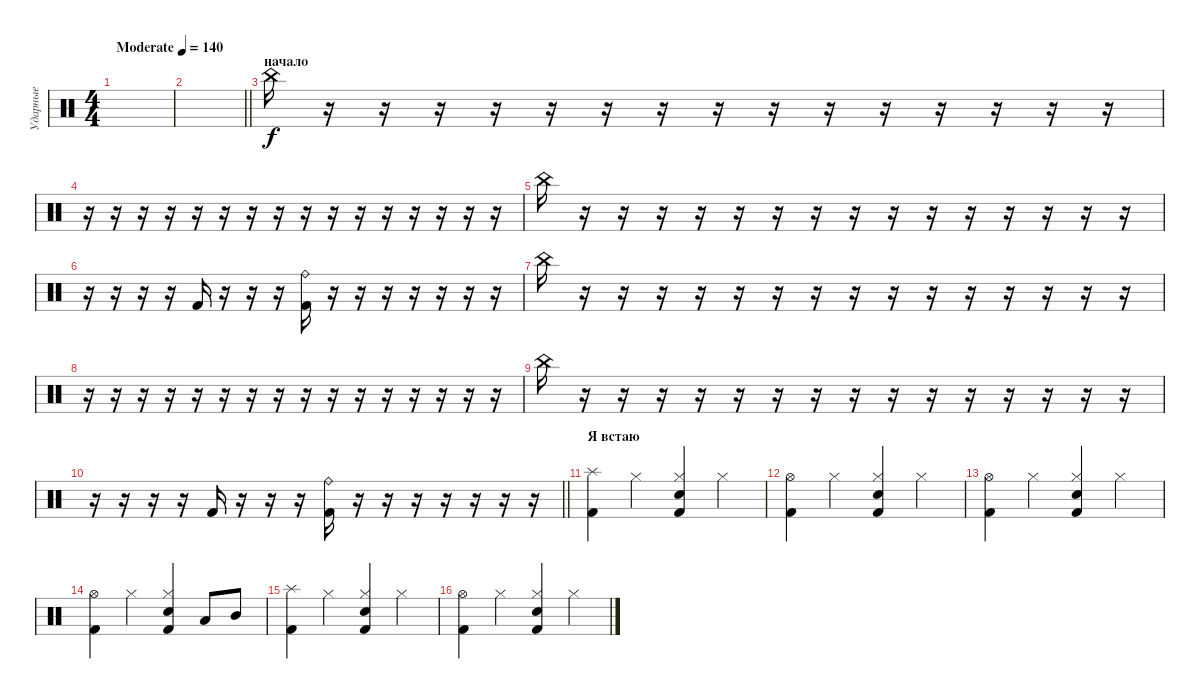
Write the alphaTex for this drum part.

\track ("Ударные" "Ударные") {instrument percussion}
\staff {score}
\articulation defaults
\ts (4 4)
\tempo (140 "Moderate")
\clef neutral
\ks c
|
\barLineRight lightlight
|
\section ("" "начало")
"China (hit)".16 r.16 r.16 r.16 r.16 r.16 r.16 r.16 r.16 r.16 r.16 r.16 r.16 r.16 r.16 r.16 |
r.16 r.16 r.16 r.16 r.16 r.16 r.16 r.16 r.16 r.16 r.16 r.16 r.16 r.16 r.16 r.16 |
"China (hit)".16 r.16 r.16 r.16 r.16 r.16 r.16 r.16 r.16 r.16 r.16 r.16 r.16 r.16 r.16 r.16 |
r.16 r.16 r.16 r.16 "Kick (hit) 2".16 r.16 r.16 r.16 ("Ride (bell)" "Kick (hit) 2").16 r.16 r.16 r.16 r.16 r.16 r.16 r.16 |
"China (hit)".16 r.16 r.16 r.16 r.16 r.16 r.16 r.16 r.16 r.16 r.16 r.16 r.16 r.16 r.16 r.16 |
r.16 r.16 r.16 r.16 r.16 r.16 r.16 r.16 r.16 r.16 r.16 r.16 r.16 r.16 r.16 r.16 |
"China (hit)".16 r.16 r.16 r.16 r.16 r.16 r.16 r.16 r.16 r.16 r.16 r.16 r.16 r.16 r.16 r.16 |
\barLineRight lightlight
r.16 r.16 r.16 r.16 "Kick (hit) 2".16 r.16 r.16 r.16 ("Ride (bell)" "Kick (hit) 2").16 r.16 r.16 r.16 r.16 r.16 r.16 r.16 |
\section ("" "Я встаю")
("Splash (hit)" "Kick (hit) 2").4 "Hi-Hat (closed)".4 ("Hi-Hat (closed)" "Electric Snare (hit)" "Kick (hit) 2").4 "Hi-Hat (closed)".4 |
("Hi-Hat (open)" "Kick (hit) 2").4 "Hi-Hat (closed)".4 ("Hi-Hat (closed)" "Electric Snare (hit)" "Kick (hit) 2").4 "Hi-Hat (closed)".4 |
("Hi-Hat (open)" "Kick (hit) 2").4 "Hi-Hat (closed)".4 ("Hi-Hat (closed)" "Electric Snare (hit)" "Kick (hit) 2").4 "Hi-Hat (closed)".4 |
("Hi-Hat (open)" "Kick (hit) 2").4 "Hi-Hat (closed)".4 ("Hi-Hat (closed)" "Electric Snare (hit)" "Kick (hit) 2").4 "Low Tom (hit)".8 "Mid Tom (hit)".8 |
("Splash (hit)" "Kick (hit) 2").4 "Hi-Hat (closed)".4 ("Hi-Hat (closed)" "Electric Snare (hit)" "Kick (hit) 2").4 "Hi-Hat (closed)".4 |
("Hi-Hat (open)" "Kick (hit) 2").4 "Hi-Hat (closed)".4 ("Hi-Hat (closed)" "Electric Snare (hit)" "Kick (hit) 2").4 "Hi-Hat (closed)".4
